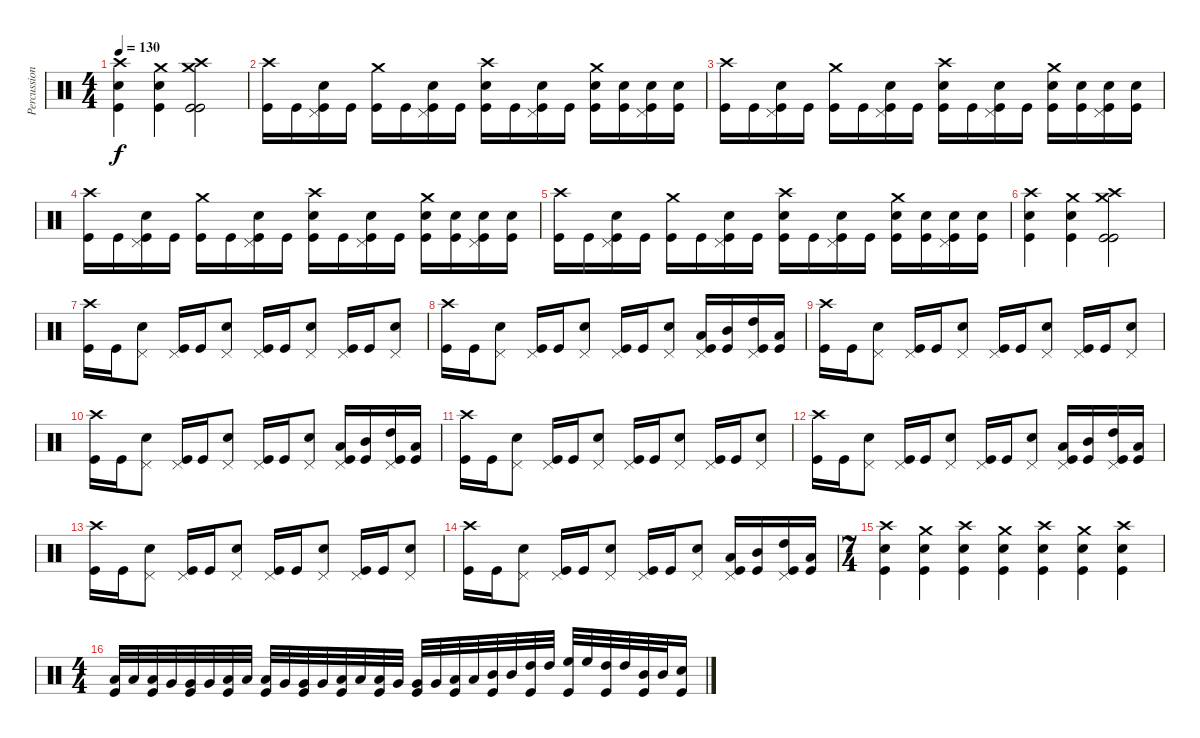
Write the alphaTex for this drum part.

\track ("Percussion" "Percussion") {instrument percussion}
\staff {score}
\articulation defaults
\ts (4 4)
\tempo 130
\clef neutral
\ks c
("Crash high (hit)" "Snare (hit) 2" "Kick (hit)").4{dy f} ("Crash medium (hit)" "Snare (hit) 2" "Kick (hit)").4 ("Crash medium (hit)" "Crash high (hit)" "Kick (hit)" "Kick (hit)").2 |
("Crash high (hit)" "Kick (hit)").16 "Kick (hit)".16 ("Pedal Hi-Hat (hit)" "Snare (hit) 2" "Kick (hit)").16 "Kick (hit)".16 ("Crash medium (hit)" "Kick (hit)").16 "Kick (hit)".16 ("Pedal Hi-Hat (hit)" "Snare (hit) 2" "Kick (hit)").16 "Kick (hit)".16 ("Crash high (hit)" "Snare (hit) 2" "Kick (hit)").16 "Kick (hit)".16 ("Pedal Hi-Hat (hit)" "Snare (hit) 2" "Kick (hit)").16 "Kick (hit)".16 ("Crash medium (hit)" "Snare (hit) 2" "Kick (hit)").16 ("Snare (hit) 2" "Kick (hit)").16 ("Pedal Hi-Hat (hit)" "Snare (hit) 2" "Kick (hit)").16 ("Snare (hit) 2" "Kick (hit)").16 |
("Crash high (hit)" "Kick (hit)").16 "Kick (hit)".16 ("Pedal Hi-Hat (hit)" "Snare (hit) 2" "Kick (hit)").16 "Kick (hit)".16 ("Crash medium (hit)" "Kick (hit)").16 "Kick (hit)".16 ("Pedal Hi-Hat (hit)" "Snare (hit) 2" "Kick (hit)").16 "Kick (hit)".16 ("Crash high (hit)" "Snare (hit) 2" "Kick (hit)").16 "Kick (hit)".16 ("Pedal Hi-Hat (hit)" "Snare (hit) 2" "Kick (hit)").16 "Kick (hit)".16 ("Crash medium (hit)" "Snare (hit) 2" "Kick (hit)").16 ("Snare (hit) 2" "Kick (hit)").16 ("Pedal Hi-Hat (hit)" "Snare (hit) 2" "Kick (hit)").16 ("Snare (hit) 2" "Kick (hit)").16 |
("Crash high (hit)" "Kick (hit)").16 "Kick (hit)".16 ("Pedal Hi-Hat (hit)" "Snare (hit) 2" "Kick (hit)").16 "Kick (hit)".16 ("Crash medium (hit)" "Kick (hit)").16 "Kick (hit)".16 ("Pedal Hi-Hat (hit)" "Snare (hit) 2" "Kick (hit)").16 "Kick (hit)".16 ("Crash high (hit)" "Snare (hit) 2" "Kick (hit)").16 "Kick (hit)".16 ("Pedal Hi-Hat (hit)" "Snare (hit) 2" "Kick (hit)").16 "Kick (hit)".16 ("Crash medium (hit)" "Snare (hit) 2" "Kick (hit)").16 ("Snare (hit) 2" "Kick (hit)").16 ("Pedal Hi-Hat (hit)" "Snare (hit) 2" "Kick (hit)").16 ("Snare (hit) 2" "Kick (hit)").16 |
("Crash high (hit)" "Kick (hit)").16 "Kick (hit)".16 ("Pedal Hi-Hat (hit)" "Snare (hit) 2" "Kick (hit)").16 "Kick (hit)".16 ("Crash medium (hit)" "Kick (hit)").16 "Kick (hit)".16 ("Pedal Hi-Hat (hit)" "Snare (hit) 2" "Kick (hit)").16 "Kick (hit)".16 ("Crash high (hit)" "Snare (hit) 2" "Kick (hit)").16 "Kick (hit)".16 ("Pedal Hi-Hat (hit)" "Snare (hit) 2" "Kick (hit)").16 "Kick (hit)".16 ("Crash medium (hit)" "Snare (hit) 2" "Kick (hit)").16 ("Snare (hit) 2" "Kick (hit)").16 ("Pedal Hi-Hat (hit)" "Snare (hit) 2" "Kick (hit)").16 ("Snare (hit) 2" "Kick (hit)").16 |
("Crash high (hit)" "Snare (hit) 2" "Kick (hit)").4 ("Crash medium (hit)" "Snare (hit) 2" "Kick (hit)").4 ("Crash medium (hit)" "Crash high (hit)" "Kick (hit)" "Kick (hit)").2 |
("Crash high (hit)" "Kick (hit)").16 "Kick (hit)".16 ("Pedal Hi-Hat (hit)" "Snare (hit) 2").8 ("Pedal Hi-Hat (hit)" "Kick (hit)").16 "Kick (hit)".16 ("Pedal Hi-Hat (hit)" "Snare (hit) 2").8 ("Pedal Hi-Hat (hit)" "Kick (hit)").16 "Kick (hit)".16 ("Pedal Hi-Hat (hit)" "Snare (hit) 2").8 ("Pedal Hi-Hat (hit)" "Kick (hit)").16 "Kick (hit)".16 ("Pedal Hi-Hat (hit)" "Snare (hit) 2").8 |
("Crash high (hit)" "Kick (hit)").16 "Kick (hit)".16 ("Pedal Hi-Hat (hit)" "Snare (hit) 2").8 ("Pedal Hi-Hat (hit)" "Kick (hit)").16 "Kick (hit)".16 ("Pedal Hi-Hat (hit)" "Snare (hit) 2").8 ("Pedal Hi-Hat (hit)" "Kick (hit)").16 "Kick (hit)".16 ("Pedal Hi-Hat (hit)" "Snare (hit) 2").8 ("Low Tom (hit)" "Pedal Hi-Hat (hit)" "Kick (hit)").16 ("Mid Tom (hit)" "Kick (hit)").16 ("High Tom (hit)" "Pedal Hi-Hat (hit)" "Kick (hit)").16 ("Low Tom (hit)" "Kick (hit)").16 |
("Crash high (hit)" "Kick (hit)").16 "Kick (hit)".16 ("Pedal Hi-Hat (hit)" "Snare (hit) 2").8 ("Pedal Hi-Hat (hit)" "Kick (hit)").16 "Kick (hit)".16 ("Pedal Hi-Hat (hit)" "Snare (hit) 2").8 ("Pedal Hi-Hat (hit)" "Kick (hit)").16 "Kick (hit)".16 ("Pedal Hi-Hat (hit)" "Snare (hit) 2").8 ("Pedal Hi-Hat (hit)" "Kick (hit)").16 "Kick (hit)".16 ("Pedal Hi-Hat (hit)" "Snare (hit) 2").8 |
("Crash high (hit)" "Kick (hit)").16 "Kick (hit)".16 ("Pedal Hi-Hat (hit)" "Snare (hit) 2").8 ("Pedal Hi-Hat (hit)" "Kick (hit)").16 "Kick (hit)".16 ("Pedal Hi-Hat (hit)" "Snare (hit) 2").8 ("Pedal Hi-Hat (hit)" "Kick (hit)").16 "Kick (hit)".16 ("Pedal Hi-Hat (hit)" "Snare (hit) 2").8 ("Low Tom (hit)" "Pedal Hi-Hat (hit)" "Kick (hit)").16 ("Mid Tom (hit)" "Kick (hit)").16 ("High Tom (hit)" "Pedal Hi-Hat (hit)" "Kick (hit)").16 ("Low Tom (hit)" "Kick (hit)").16 |
("Crash high (hit)" "Kick (hit)").16 "Kick (hit)".16 ("Pedal Hi-Hat (hit)" "Snare (hit) 2").8 ("Pedal Hi-Hat (hit)" "Kick (hit)").16 "Kick (hit)".16 ("Pedal Hi-Hat (hit)" "Snare (hit) 2").8 ("Pedal Hi-Hat (hit)" "Kick (hit)").16 "Kick (hit)".16 ("Pedal Hi-Hat (hit)" "Snare (hit) 2").8 ("Pedal Hi-Hat (hit)" "Kick (hit)").16 "Kick (hit)".16 ("Pedal Hi-Hat (hit)" "Snare (hit) 2").8 |
("Crash high (hit)" "Kick (hit)").16 "Kick (hit)".16 ("Pedal Hi-Hat (hit)" "Snare (hit) 2").8 ("Pedal Hi-Hat (hit)" "Kick (hit)").16 "Kick (hit)".16 ("Pedal Hi-Hat (hit)" "Snare (hit) 2").8 ("Pedal Hi-Hat (hit)" "Kick (hit)").16 "Kick (hit)".16 ("Pedal Hi-Hat (hit)" "Snare (hit) 2").8 ("Low Tom (hit)" "Pedal Hi-Hat (hit)" "Kick (hit)").16 ("Mid Tom (hit)" "Kick (hit)").16 ("High Tom (hit)" "Pedal Hi-Hat (hit)" "Kick (hit)").16 ("Low Tom (hit)" "Kick (hit)").16 |
("Crash high (hit)" "Kick (hit)").16 "Kick (hit)".16 ("Pedal Hi-Hat (hit)" "Snare (hit) 2").8 ("Pedal Hi-Hat (hit)" "Kick (hit)").16 "Kick (hit)".16 ("Pedal Hi-Hat (hit)" "Snare (hit) 2").8 ("Pedal Hi-Hat (hit)" "Kick (hit)").16 "Kick (hit)".16 ("Pedal Hi-Hat (hit)" "Snare (hit) 2").8 ("Pedal Hi-Hat (hit)" "Kick (hit)").16 "Kick (hit)".16 ("Pedal Hi-Hat (hit)" "Snare (hit) 2").8 |
("Crash high (hit)" "Kick (hit)").16 "Kick (hit)".16 ("Pedal Hi-Hat (hit)" "Snare (hit) 2").8 ("Pedal Hi-Hat (hit)" "Kick (hit)").16 "Kick (hit)".16 ("Pedal Hi-Hat (hit)" "Snare (hit) 2").8 ("Pedal Hi-Hat (hit)" "Kick (hit)").16 "Kick (hit)".16 ("Pedal Hi-Hat (hit)" "Snare (hit) 2").8 ("Low Tom (hit)" "Pedal Hi-Hat (hit)" "Kick (hit)").16 ("Mid Tom (hit)" "Kick (hit)").16 ("High Tom (hit)" "Pedal Hi-Hat (hit)" "Kick (hit)").16 ("Low Tom (hit)" "Kick (hit)").16 |
\ts (7 4)
("Kick (hit)" "Snare (hit) 2" "Crash high (hit)").4 ("Kick (hit)" "Snare (hit) 2" "Crash medium (hit)").4 ("Kick (hit)" "Snare (hit) 2" "Crash high (hit)").4 ("Kick (hit)" "Snare (hit) 2" "Crash medium (hit)").4 ("Kick (hit)" "Snare (hit) 2" "Crash high (hit)").4 ("Kick (hit)" "Snare (hit) 2" "Crash medium (hit)").4 ("Kick (hit)" "Snare (hit) 2" "Crash high (hit)").4 |
\ts (4 4)
("Kick (hit)" "Low Floor Tom (hit)").32 "Low Floor Tom (hit)".32 ("Kick (hit)" "Low Floor Tom (hit)").32 "Very Low Tom (hit)".32 ("Kick (hit)" "Very Low Tom (hit)").32 "Very Low Tom (hit)".32 ("Kick (hit)" "Low Floor Tom (hit)").32 "Low Floor Tom (hit)".32 ("Kick (hit)" "Low Floor Tom (hit)").32 "Very Low Tom (hit)".32 ("Kick (hit)" "Very Low Tom (hit)").32 "Very Low Tom (hit)".32 ("Kick (hit)" "Low Tom (hit)").32 "Low Tom (hit)".32 ("Kick (hit)" "Low Tom (hit)").32 "Very Low Tom (hit)".32 ("Kick (hit)" "Very Low Tom (hit)").32 "Very Low Tom (hit)".32 ("Kick (hit)" "Low Tom (hit)").32 "Low Tom (hit)".32 ("Kick (hit)" "Mid Tom (hit)").32 "Mid Tom (hit)".32 ("Kick (hit)" "High Tom (hit)").32 "High Tom (hit)".32 ("Kick (hit)" "High Floor Tom (hit)").32 "High Floor Tom (hit)".32 ("Kick (hit)" "High Tom (hit)").32 "High Tom (hit)".32 ("Kick (hit)" "Mid Tom (hit)").32 "Mid Tom (hit)".32 ("Kick (hit)" "Snare (hit) 2").16
